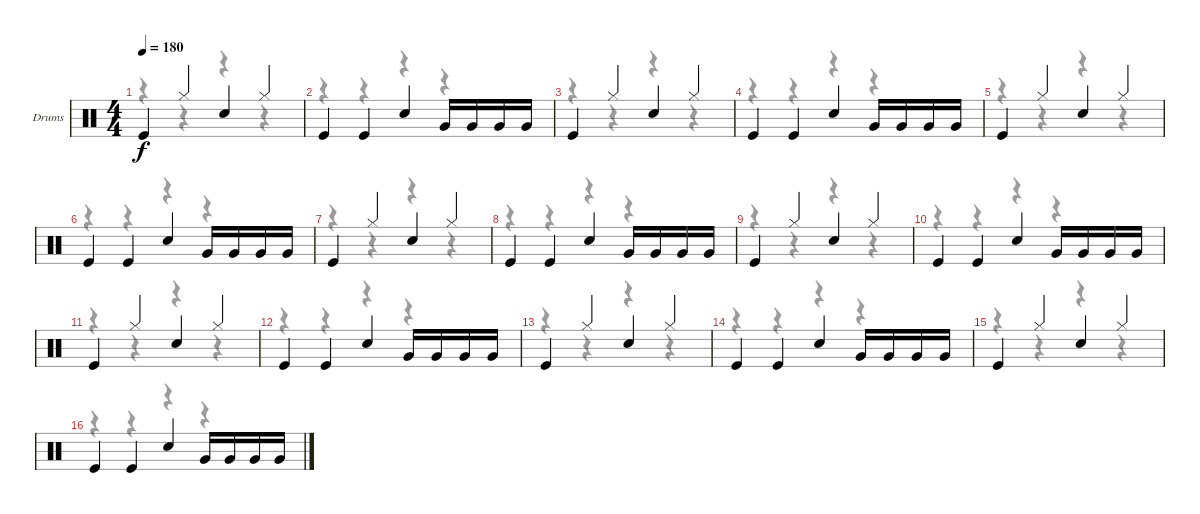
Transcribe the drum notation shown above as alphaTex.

\bracketExtendMode groupsimilarinstruments
\firstSystemTrackNameOrientation horizontal
\otherSystemsTrackNameOrientation horizontal
\track ("Drumkit" "Drums") {instrument percussion}
\staff {score}
\articulation defaults
\voice
\ts (4 4)
\tempo 180
\clef neutral
\ks c "Kick (hit)".4{dy f} "Hi-Hat (closed)".4 "Snare (hit) 2".4 "Hi-Hat (closed)".4
|
"Kick (hit)".4 "Kick (hit)".4 "Snare (hit) 2".4 "Very Low Tom (hit)".16 "Very Low Tom (hit)".16 "Very Low Tom (hit)".16 "Very Low Tom (hit)".16 |
"Kick (hit)".4 "Hi-Hat (closed)".4 "Snare (hit) 2".4 "Hi-Hat (closed)".4 |
"Kick (hit)".4 "Kick (hit)".4 "Snare (hit) 2".4 "Very Low Tom (hit)".16 "Very Low Tom (hit)".16 "Very Low Tom (hit)".16 "Very Low Tom (hit)".16 |
"Kick (hit)".4 "Hi-Hat (closed)".4 "Snare (hit) 2".4 "Hi-Hat (closed)".4 |
"Kick (hit)".4 "Kick (hit)".4 "Snare (hit) 2".4 "Very Low Tom (hit)".16 "Very Low Tom (hit)".16 "Very Low Tom (hit)".16 "Very Low Tom (hit)".16 |
"Kick (hit)".4 "Hi-Hat (closed)".4 "Snare (hit) 2".4 "Hi-Hat (closed)".4 |
"Kick (hit)".4 "Kick (hit)".4 "Snare (hit) 2".4 "Very Low Tom (hit)".16 "Very Low Tom (hit)".16 "Very Low Tom (hit)".16 "Very Low Tom (hit)".16 |
"Kick (hit)".4 "Hi-Hat (closed)".4 "Snare (hit) 2".4 "Hi-Hat (closed)".4 |
"Kick (hit)".4 "Kick (hit)".4 "Snare (hit) 2".4 "Very Low Tom (hit)".16 "Very Low Tom (hit)".16 "Very Low Tom (hit)".16 "Very Low Tom (hit)".16 |
"Kick (hit)".4 "Hi-Hat (closed)".4 "Snare (hit) 2".4 "Hi-Hat (closed)".4 |
"Kick (hit)".4 "Kick (hit)".4 "Snare (hit) 2".4 "Very Low Tom (hit)".16 "Very Low Tom (hit)".16 "Very Low Tom (hit)".16 "Very Low Tom (hit)".16 |
"Kick (hit)".4 "Hi-Hat (closed)".4 "Snare (hit) 2".4 "Hi-Hat (closed)".4 |
"Kick (hit)".4 "Kick (hit)".4 "Snare (hit) 2".4 "Very Low Tom (hit)".16 "Very Low Tom (hit)".16 "Very Low Tom (hit)".16 "Very Low Tom (hit)".16 |
"Kick (hit)".4 "Hi-Hat (closed)".4 "Snare (hit) 2".4 "Hi-Hat (closed)".4 |
"Kick (hit)".4 "Kick (hit)".4 "Snare (hit) 2".4 "Very Low Tom (hit)".16 "Very Low Tom (hit)".16 "Very Low Tom (hit)".16 "Very Low Tom (hit)".16
\voice
\clef neutral
\ottava regular
\simile none
\ks c
r.4{dy mf} r.4 r.4 r.4 |
r.4 r.4 r.4 r.4 |
r.4 r.4 r.4 r.4 |
r.4 r.4 r.4 r.4 |
r.4 r.4 r.4 r.4 |
r.4 r.4 r.4 r.4 |
r.4 r.4 r.4 r.4 |
r.4 r.4 r.4 r.4 |
r.4 r.4 r.4 r.4 |
r.4 r.4 r.4 r.4 |
r.4 r.4 r.4 r.4 |
r.4 r.4 r.4 r.4 |
r.4 r.4 r.4 r.4 |
r.4 r.4 r.4 r.4 |
r.4 r.4 r.4 r.4 |
r.4 r.4 r.4 r.4
